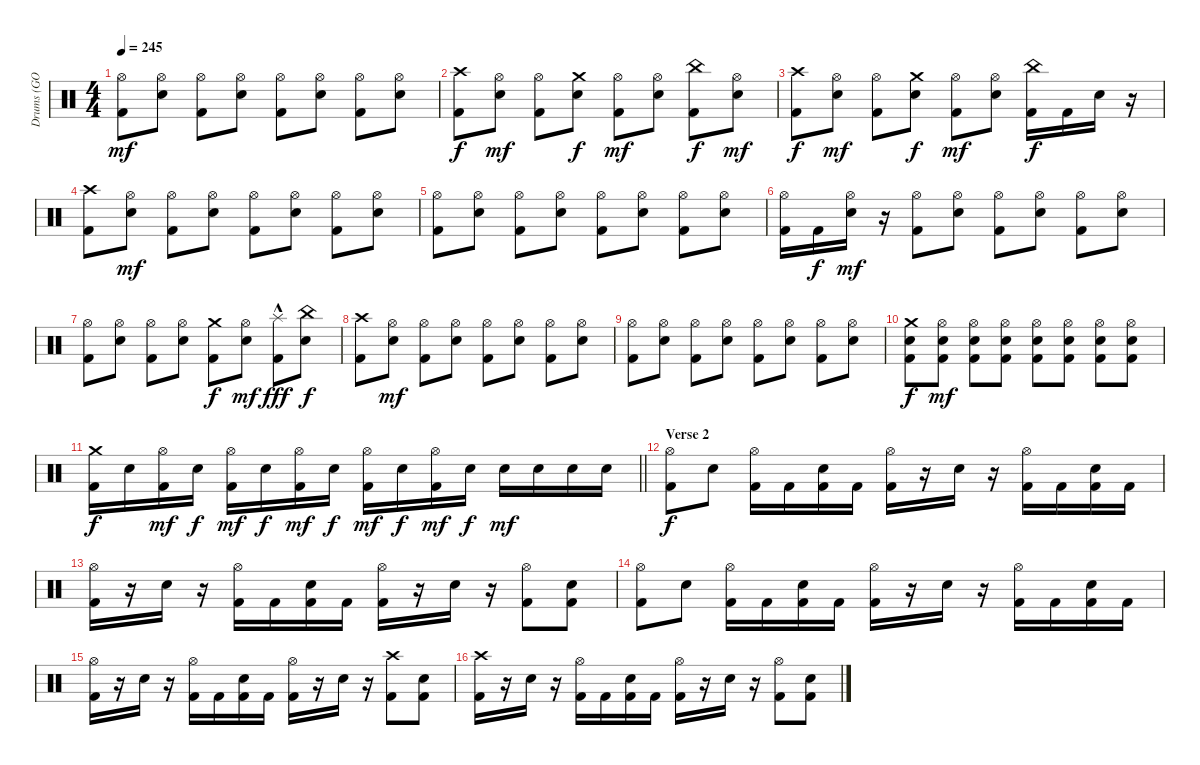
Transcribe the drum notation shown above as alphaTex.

\track ("Drums (GO DIRK)" "Drums (GO ") {instrument percussion}
\staff {score}
\articulation defaults
\ts (4 4)
\tempo 245
\clef neutral
\ks c
("Hi-Hat (open)" "Kick (hit) 2").8{dy mf} ("Hi-Hat (open)" "Electric Snare (hit)").8 ("Hi-Hat (open)" "Kick (hit) 2").8 ("Hi-Hat (open)" "Electric Snare (hit)").8 ("Hi-Hat (open)" "Kick (hit) 2").8 ("Hi-Hat (open)" "Electric Snare (hit)").8 ("Hi-Hat (open)" "Kick (hit) 2").8 ("Hi-Hat (open)" "Electric Snare (hit)").8 |
("Crash high (hit)" "Kick (hit) 2").8{dy f} ("Hi-Hat (open)" "Electric Snare (hit)").8{dy mf} ("Hi-Hat (open)" "Kick (hit) 2").8 ("Crash medium (hit)" "Electric Snare (hit)").8{dy f} ("Hi-Hat (open)" "Kick (hit) 2").8{dy mf} ("Hi-Hat (open)" "Electric Snare (hit)").8 ("China (hit)" "Kick (hit) 2").8{dy f} ("Hi-Hat (open)" "Electric Snare (hit)").8{dy mf} |
("Crash high (hit)" "Kick (hit) 2").8{dy f} ("Hi-Hat (open)" "Electric Snare (hit)").8{dy mf} ("Hi-Hat (open)" "Kick (hit) 2").8 ("Crash medium (hit)" "Electric Snare (hit)").8{dy f} ("Hi-Hat (open)" "Kick (hit) 2").8{dy mf} ("Hi-Hat (open)" "Electric Snare (hit)").8 ("China (hit)" "Kick (hit) 2").16{dy f} "Kick (hit) 2".16 "Electric Snare (hit)".16 r.16 |
("Crash high (hit)" "Kick (hit) 2").8 ("Hi-Hat (open)" "Electric Snare (hit)").8{dy mf} ("Hi-Hat (open)" "Kick (hit) 2").8 ("Hi-Hat (open)" "Electric Snare (hit)").8 ("Hi-Hat (open)" "Kick (hit) 2").8 ("Hi-Hat (open)" "Electric Snare (hit)").8 ("Hi-Hat (open)" "Kick (hit) 2").8 ("Hi-Hat (open)" "Electric Snare (hit)").8 |
("Hi-Hat (open)" "Kick (hit) 2").8 ("Hi-Hat (open)" "Electric Snare (hit)").8 ("Hi-Hat (open)" "Kick (hit) 2").8 ("Hi-Hat (open)" "Electric Snare (hit)").8 ("Hi-Hat (open)" "Kick (hit) 2").8 ("Hi-Hat (open)" "Electric Snare (hit)").8 ("Hi-Hat (open)" "Kick (hit) 2").8 ("Hi-Hat (open)" "Electric Snare (hit)").8 |
("Hi-Hat (open)" "Kick (hit) 2").16 "Kick (hit) 2".16{dy f} ("Hi-Hat (open)" "Electric Snare (hit)").16{dy mf} r.16 ("Hi-Hat (open)" "Kick (hit) 2").8 ("Hi-Hat (open)" "Electric Snare (hit)").8 ("Hi-Hat (open)" "Kick (hit) 2").8 ("Hi-Hat (open)" "Electric Snare (hit)").8 ("Hi-Hat (open)" "Kick (hit) 2").8 ("Hi-Hat (open)" "Electric Snare (hit)").8 |
("Hi-Hat (open)" "Kick (hit) 2").8 ("Hi-Hat (open)" "Electric Snare (hit)").8 ("Hi-Hat (open)" "Kick (hit) 2").8 ("Hi-Hat (open)" "Electric Snare (hit)").8 ("Crash medium (hit)" "Kick (hit) 2").8{dy f} ("Hi-Hat (open)" "Electric Snare (hit)").8{dy mf} ("Splash (hit)"{hac} "Kick (hit) 2").8{dy fff} ("China (hit)" "Electric Snare (hit)").8{dy f} |
("Crash high (hit)" "Kick (hit) 2").8 ("Hi-Hat (open)" "Electric Snare (hit)").8{dy mf} ("Hi-Hat (open)" "Kick (hit) 2").8 ("Hi-Hat (open)" "Electric Snare (hit)").8 ("Hi-Hat (open)" "Kick (hit) 2").8 ("Hi-Hat (open)" "Electric Snare (hit)").8 ("Hi-Hat (open)" "Kick (hit) 2").8 ("Hi-Hat (open)" "Electric Snare (hit)").8 |
("Hi-Hat (open)" "Kick (hit) 2").8 ("Hi-Hat (open)" "Electric Snare (hit)").8 ("Hi-Hat (open)" "Kick (hit) 2").8 ("Hi-Hat (open)" "Electric Snare (hit)").8 ("Hi-Hat (open)" "Kick (hit) 2").8 ("Hi-Hat (open)" "Electric Snare (hit)").8 ("Hi-Hat (open)" "Kick (hit) 2").8 ("Hi-Hat (open)" "Electric Snare (hit)").8 |
("Crash medium (hit)" "Electric Snare (hit)" "Kick (hit) 2").8{dy f} ("Hi-Hat (open)" "Electric Snare (hit)" "Kick (hit) 2").8{dy mf} ("Hi-Hat (open)" "Electric Snare (hit)" "Kick (hit) 2").8 ("Hi-Hat (open)" "Electric Snare (hit)" "Kick (hit) 2").8 ("Hi-Hat (open)" "Electric Snare (hit)" "Kick (hit) 2").8 ("Hi-Hat (open)" "Electric Snare (hit)" "Kick (hit) 2").8 ("Hi-Hat (open)" "Electric Snare (hit)" "Kick (hit) 2").8 ("Hi-Hat (open)" "Electric Snare (hit)" "Kick (hit) 2").8 |
\barLineRight lightlight
("Crash medium (hit)" "Kick (hit) 2").16{dy f} "Electric Snare (hit)".16 ("Hi-Hat (open)" "Kick (hit) 2").16{dy mf} "Electric Snare (hit)".16{dy f} ("Hi-Hat (open)" "Kick (hit) 2").16{dy mf} "Electric Snare (hit)".16{dy f} ("Hi-Hat (open)" "Kick (hit) 2").16{dy mf} "Electric Snare (hit)".16{dy f} ("Hi-Hat (open)" "Kick (hit) 2").16{dy mf} "Electric Snare (hit)".16{dy f} ("Hi-Hat (open)" "Kick (hit) 2").16{dy mf} "Electric Snare (hit)".16{dy f} "Electric Snare (hit)".16{dy mf} "Electric Snare (hit)".16 "Electric Snare (hit)".16 "Electric Snare (hit)".16 |
\section ("" "Verse 2")
("Hi-Hat (open)" "Kick (hit) 2").8{dy f} "Electric Snare (hit)".8 ("Hi-Hat (open)" "Kick (hit) 2").16 "Kick (hit) 2".16 ("Electric Snare (hit)" "Kick (hit) 2").16 "Kick (hit) 2".16 ("Hi-Hat (open)" "Kick (hit) 2").16 r.16 "Electric Snare (hit)".16 r.16 ("Hi-Hat (open)" "Kick (hit) 2").16 "Kick (hit) 2".16 ("Electric Snare (hit)" "Kick (hit) 2").16 "Kick (hit) 2".16 |
("Hi-Hat (open)" "Kick (hit) 2").16 r.16 "Electric Snare (hit)".16 r.16 ("Hi-Hat (open)" "Kick (hit) 2").16 "Kick (hit) 2".16 ("Electric Snare (hit)" "Kick (hit) 2").16 "Kick (hit) 2".16 ("Hi-Hat (open)" "Kick (hit) 2").16 r.16 "Electric Snare (hit)".16 r.16 ("Hi-Hat (open)" "Kick (hit) 2").8 ("Electric Snare (hit)" "Kick (hit) 2").8 |
("Hi-Hat (open)" "Kick (hit) 2").8 "Electric Snare (hit)".8 ("Hi-Hat (open)" "Kick (hit) 2").16 "Kick (hit) 2".16 ("Electric Snare (hit)" "Kick (hit) 2").16 "Kick (hit) 2".16 ("Hi-Hat (open)" "Kick (hit) 2").16 r.16 "Electric Snare (hit)".16 r.16 ("Hi-Hat (open)" "Kick (hit) 2").16 "Kick (hit) 2".16 ("Electric Snare (hit)" "Kick (hit) 2").16 "Kick (hit) 2".16 |
("Hi-Hat (open)" "Kick (hit) 2").16 r.16 "Electric Snare (hit)".16 r.16 ("Hi-Hat (open)" "Kick (hit) 2").16 "Kick (hit) 2".16 ("Electric Snare (hit)" "Kick (hit) 2").16 "Kick (hit) 2".16 ("Hi-Hat (open)" "Kick (hit) 2").16 r.16 "Electric Snare (hit)".16 r.16 ("Crash high (hit)" "Kick (hit) 2").8 ("Electric Snare (hit)" "Kick (hit) 2").8 |
("Crash high (hit)" "Kick (hit) 2").16 r.16 "Electric Snare (hit)".16 r.16 ("Hi-Hat (open)" "Kick (hit) 2").16 "Kick (hit) 2".16 ("Electric Snare (hit)" "Kick (hit) 2").16 "Kick (hit) 2".16 ("Hi-Hat (open)" "Kick (hit) 2").16 r.16 "Electric Snare (hit)".16 r.16 ("Hi-Hat (open)" "Kick (hit) 2").8 ("Electric Snare (hit)" "Kick (hit) 2").8
